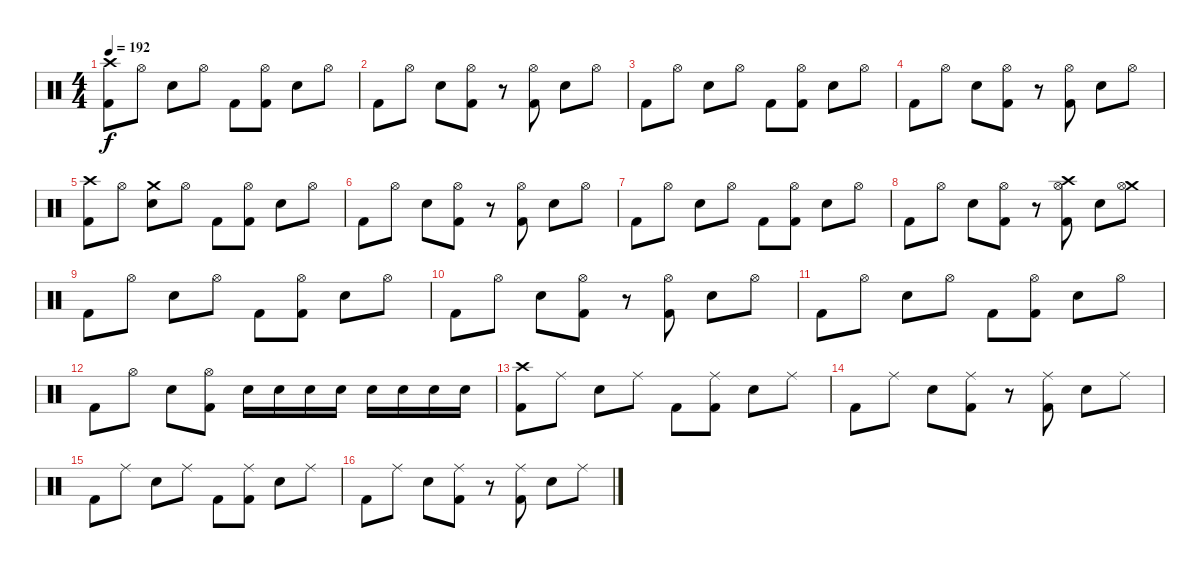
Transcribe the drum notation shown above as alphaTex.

\track "" {instrument percussion}
\staff {score}
\articulation defaults
\ts (4 4)
\tempo 192
\clef neutral
\ks c
("Crash high (hit)" "Kick (hit) 2").8{dy f} "Hi-Hat (open)".8 "Snare (hit) 2".8 "Hi-Hat (open)".8 "Kick (hit) 2".8 ("Hi-Hat (open)" "Kick (hit) 2").8 "Snare (hit) 2".8 "Hi-Hat (open)".8 |
"Kick (hit) 2".8 "Hi-Hat (open)".8 "Snare (hit) 2".8 ("Hi-Hat (open)" "Kick (hit) 2").8 r.8 ("Hi-Hat (open)" "Kick (hit) 2").8 "Snare (hit) 2".8 "Hi-Hat (open)".8 |
"Kick (hit) 2".8 "Hi-Hat (open)".8 "Snare (hit) 2".8 "Hi-Hat (open)".8 "Kick (hit) 2".8 ("Hi-Hat (open)" "Kick (hit) 2").8 "Snare (hit) 2".8 "Hi-Hat (open)".8 |
"Kick (hit) 2".8 "Hi-Hat (open)".8 "Snare (hit) 2".8 ("Hi-Hat (open)" "Kick (hit) 2").8 r.8 ("Hi-Hat (open)" "Kick (hit) 2").8 "Snare (hit) 2".8 "Hi-Hat (open)".8 |
("Crash high (hit)" "Kick (hit) 2").8 "Hi-Hat (open)".8 ("Crash medium (hit)" "Snare (hit) 2").8 "Hi-Hat (open)".8 "Kick (hit) 2".8 ("Hi-Hat (open)" "Kick (hit) 2").8 "Snare (hit) 2".8 "Hi-Hat (open)".8 |
"Kick (hit) 2".8 "Hi-Hat (open)".8 "Snare (hit) 2".8 ("Hi-Hat (open)" "Kick (hit) 2").8 r.8 ("Hi-Hat (open)" "Kick (hit) 2").8 "Snare (hit) 2".8 "Hi-Hat (open)".8 |
"Kick (hit) 2".8 "Hi-Hat (open)".8 "Snare (hit) 2".8 "Hi-Hat (open)".8 "Kick (hit) 2".8 ("Hi-Hat (open)" "Kick (hit) 2").8 "Snare (hit) 2".8 "Hi-Hat (open)".8 |
"Kick (hit) 2".8 "Hi-Hat (open)".8 "Snare (hit) 2".8 ("Hi-Hat (open)" "Kick (hit) 2").8 r.8 ("Crash high (hit)" "Hi-Hat (open)" "Kick (hit) 2").8 "Snare (hit) 2".8 ("Crash medium (hit)" "Hi-Hat (open)").8 |
"Kick (hit) 2".8 "Hi-Hat (open)".8 "Snare (hit) 2".8 "Hi-Hat (open)".8 "Kick (hit) 2".8 ("Hi-Hat (open)" "Kick (hit) 2").8 "Snare (hit) 2".8 "Hi-Hat (open)".8 |
"Kick (hit) 2".8 "Hi-Hat (open)".8 "Snare (hit) 2".8 ("Hi-Hat (open)" "Kick (hit) 2").8 r.8 ("Hi-Hat (open)" "Kick (hit) 2").8 "Snare (hit) 2".8 "Hi-Hat (open)".8 |
"Kick (hit) 2".8 "Hi-Hat (open)".8 "Snare (hit) 2".8 "Hi-Hat (open)".8 "Kick (hit) 2".8 ("Hi-Hat (open)" "Kick (hit) 2").8 "Snare (hit) 2".8 "Hi-Hat (open)".8 |
"Kick (hit) 2".8 "Hi-Hat (open)".8 "Snare (hit) 2".8 ("Hi-Hat (open)" "Kick (hit) 2").8 "Electric Snare (hit)".16 "Electric Snare (hit)".16 "Electric Snare (hit)".16 "Electric Snare (hit)".16 "Snare (hit) 2".16 "Snare (hit) 2".16 "Snare (hit) 2".16 "Snare (hit) 2".16 |
("Crash high (hit)" "Kick (hit) 2").8 "Ride (middle)".8 "Snare (hit) 2".8 "Ride (middle)".8 "Kick (hit) 2".8 ("Ride (middle)" "Kick (hit) 2").8 "Snare (hit) 2".8 "Ride (middle)".8 |
"Kick (hit) 2".8 "Ride (middle)".8 "Snare (hit) 2".8 ("Ride (middle)" "Kick (hit) 2").8 r.8 ("Ride (middle)" "Kick (hit) 2").8 "Snare (hit) 2".8 "Ride (middle)".8 |
"Kick (hit) 2".8 "Ride (middle)".8 "Snare (hit) 2".8 "Ride (middle)".8 "Kick (hit) 2".8 ("Ride (middle)" "Kick (hit) 2").8 "Snare (hit) 2".8 "Ride (middle)".8 |
"Kick (hit) 2".8 "Ride (middle)".8 "Snare (hit) 2".8 ("Ride (middle)" "Kick (hit) 2").8 r.8 ("Ride (middle)" "Kick (hit) 2").8 "Snare (hit) 2".8 "Ride (middle)".8
